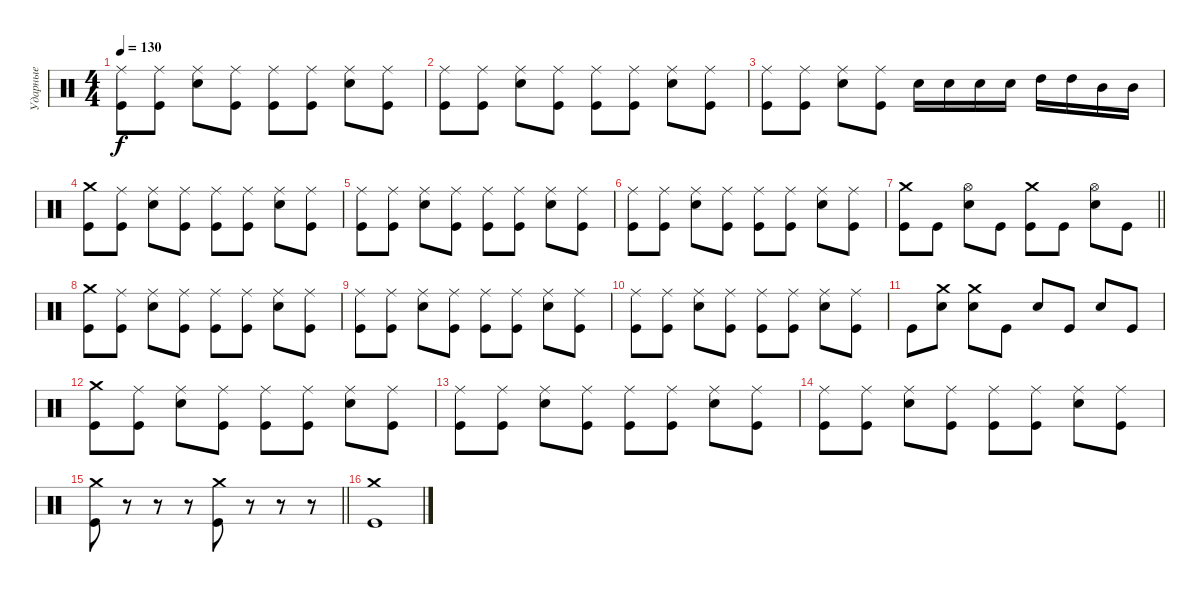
\track ("Ударные" "Ударные") {instrument percussion}
\staff {score}
\articulation defaults
\ts (4 4)
\tempo 130
\clef neutral
\ks c
("Ride (middle)" "Kick (hit)").8{dy f} ("Ride (middle)" "Kick (hit)").8 ("Ride (middle)" "Electric Snare (hit)").8 ("Ride (middle)" "Kick (hit)").8 ("Ride (middle)" "Kick (hit)").8 ("Ride (middle)" "Kick (hit)").8 ("Ride (middle)" "Electric Snare (hit)").8 ("Ride (middle)" "Kick (hit)").8 |
("Ride (middle)" "Kick (hit)").8 ("Ride (middle)" "Kick (hit)").8 ("Ride (middle)" "Electric Snare (hit)").8 ("Ride (middle)" "Kick (hit)").8 ("Ride (middle)" "Kick (hit)").8 ("Ride (middle)" "Kick (hit)").8 ("Ride (middle)" "Electric Snare (hit)").8 ("Ride (middle)" "Kick (hit)").8 |
("Ride (middle)" "Kick (hit)").8 ("Ride (middle)" "Kick (hit)").8 ("Ride (middle)" "Electric Snare (hit)").8 ("Ride (middle)" "Kick (hit)").8 "Electric Snare (hit)".16 "Electric Snare (hit)".16 "Electric Snare (hit)".16 "Electric Snare (hit)".16 "High Tom (hit)".16 "High Tom (hit)".16 "Mid Tom (hit)".16 "Mid Tom (hit)".16 |
("Crash medium (hit)" "Kick (hit)").8 ("Ride (middle)" "Kick (hit)").8 ("Ride (middle)" "Electric Snare (hit)").8 ("Ride (middle)" "Kick (hit)").8 ("Ride (middle)" "Kick (hit)").8 ("Ride (middle)" "Kick (hit)").8 ("Ride (middle)" "Electric Snare (hit)").8 ("Ride (middle)" "Kick (hit)").8 |
("Ride (middle)" "Kick (hit)").8 ("Ride (middle)" "Kick (hit)").8 ("Ride (middle)" "Electric Snare (hit)").8 ("Ride (middle)" "Kick (hit)").8 ("Ride (middle)" "Kick (hit)").8 ("Ride (middle)" "Kick (hit)").8 ("Ride (middle)" "Electric Snare (hit)").8 ("Ride (middle)" "Kick (hit)").8 |
("Ride (middle)" "Kick (hit)").8 ("Ride (middle)" "Kick (hit)").8 ("Ride (middle)" "Electric Snare (hit)").8 ("Ride (middle)" "Kick (hit)").8 ("Ride (middle)" "Kick (hit)").8 ("Ride (middle)" "Kick (hit)").8 ("Ride (middle)" "Electric Snare (hit)").8 ("Ride (middle)" "Kick (hit)").8 |
\barLineRight lightlight
("Crash medium (hit)" "Kick (hit)").8 "Kick (hit)".8 ("Hi-Hat (open)" "Electric Snare (hit)").8 "Kick (hit)".8 ("Crash medium (hit)" "Kick (hit)").8 "Kick (hit)".8 ("Hi-Hat (open)" "Electric Snare (hit)").8 "Kick (hit)".8 |
\section ("" " ")
("Crash medium (hit)" "Kick (hit)").8 ("Ride (middle)" "Kick (hit)").8 ("Ride (middle)" "Electric Snare (hit)").8 ("Ride (middle)" "Kick (hit)").8 ("Ride (middle)" "Kick (hit)").8 ("Ride (middle)" "Kick (hit)").8 ("Ride (middle)" "Electric Snare (hit)").8 ("Ride (middle)" "Kick (hit)").8 |
("Ride (middle)" "Kick (hit)").8 ("Ride (middle)" "Kick (hit)").8 ("Ride (middle)" "Electric Snare (hit)").8 ("Ride (middle)" "Kick (hit)").8 ("Ride (middle)" "Kick (hit)").8 ("Ride (middle)" "Kick (hit)").8 ("Ride (middle)" "Electric Snare (hit)").8 ("Ride (middle)" "Kick (hit)").8 |
("Ride (middle)" "Kick (hit)").8 ("Ride (middle)" "Kick (hit)").8 ("Ride (middle)" "Electric Snare (hit)").8 ("Ride (middle)" "Kick (hit)").8 ("Ride (middle)" "Kick (hit)").8 ("Ride (middle)" "Kick (hit)").8 ("Ride (middle)" "Electric Snare (hit)").8 ("Ride (middle)" "Kick (hit)").8 |
"Kick (hit)".8 ("Crash medium (hit)" "Electric Snare (hit)").8 ("Crash medium (hit)" "Electric Snare (hit)").8 "Kick (hit)".8 "Electric Snare (hit)".8 "Kick (hit)".8 "Electric Snare (hit)".8 "Kick (hit)".8 |
("Crash medium (hit)" "Kick (hit)").8 ("Ride (middle)" "Kick (hit)").8 ("Ride (middle)" "Electric Snare (hit)").8 ("Ride (middle)" "Kick (hit)").8 ("Ride (middle)" "Kick (hit)").8 ("Ride (middle)" "Kick (hit)").8 ("Ride (middle)" "Electric Snare (hit)").8 ("Ride (middle)" "Kick (hit)").8 |
("Ride (middle)" "Kick (hit)").8 ("Ride (middle)" "Kick (hit)").8 ("Ride (middle)" "Electric Snare (hit)").8 ("Ride (middle)" "Kick (hit)").8 ("Ride (middle)" "Kick (hit)").8 ("Ride (middle)" "Kick (hit)").8 ("Ride (middle)" "Electric Snare (hit)").8 ("Ride (middle)" "Kick (hit)").8 |
("Ride (middle)" "Kick (hit)").8 ("Ride (middle)" "Kick (hit)").8 ("Ride (middle)" "Electric Snare (hit)").8 ("Ride (middle)" "Kick (hit)").8 ("Ride (middle)" "Kick (hit)").8 ("Ride (middle)" "Kick (hit)").8 ("Ride (middle)" "Electric Snare (hit)").8 ("Ride (middle)" "Kick (hit)").8 |
\barLineRight lightlight
("Crash medium (hit)" "Kick (hit)").8 r.8 r.8 r.8 ("Crash medium (hit)" "Kick (hit)").8 r.8 r.8 r.8 |
("Crash medium (hit)" "Kick (hit)").1
